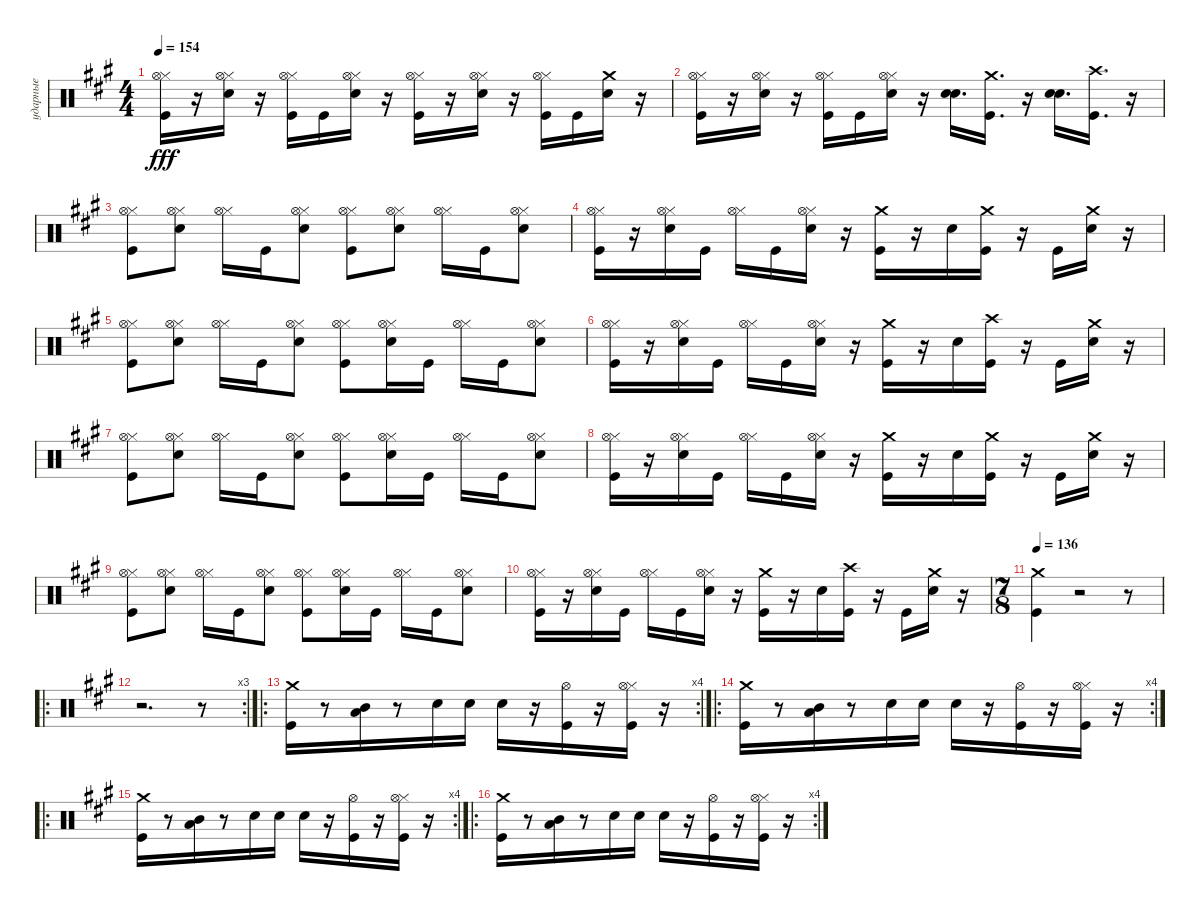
\track ("ударные" "ударные") {instrument percussion}
\staff {score}
\articulation defaults
\ts (4 4)
\tempo 154
\clef neutral
\ks f#minor
("Hi-Hat (closed)" "Kick (hit)" "Hi-Hat (open)").16{dy fff} r.16 ("Hi-Hat (closed)" "Snare (hit) 2" "Hi-Hat (open)").16 r.16 ("Hi-Hat (closed)" "Kick (hit)" "Hi-Hat (open)").16 "Kick (hit)".16 ("Hi-Hat (closed)" "Snare (hit) 2" "Hi-Hat (open)").16 r.16 ("Hi-Hat (closed)" "Kick (hit)" "Hi-Hat (open)").16 r.16 ("Hi-Hat (closed)" "Snare (hit) 2" "Hi-Hat (open)").16 r.16 ("Hi-Hat (closed)" "Kick (hit)" "Hi-Hat (open)").16 "Kick (hit)".16 ("Crash medium (hit)" "Snare (hit) 2").16 r.16 |
("Hi-Hat (closed)" "Kick (hit)" "Hi-Hat (open)").16 r.16 ("Hi-Hat (closed)" "Snare (hit) 2" "Hi-Hat (open)").16 r.16 ("Hi-Hat (closed)" "Kick (hit)" "Hi-Hat (open)").16 "Kick (hit)".16 ("Hi-Hat (closed)" "Snare (hit) 2" "Hi-Hat (open)").16 r.16 ("Snare (hit) 2" "Snare (hit) 2").16{d} ("Crash medium (hit)" "Kick (hit)").16{d} r.16 ("Snare (hit) 2" "Snare (hit) 2").16{d} ("Kick (hit)" "Crash high (hit)").16{d} r.16 |
("Hi-Hat (closed)" "Kick (hit)" "Hi-Hat (open)").8 ("Snare (hit) 2" "Hi-Hat (closed)" "Hi-Hat (open)").8 ("Hi-Hat (closed)" "Hi-Hat (open)").16 "Kick (hit)".16 ("Snare (hit) 2" "Hi-Hat (closed)" "Hi-Hat (open)").8 ("Kick (hit)" "Hi-Hat (closed)" "Hi-Hat (open)").8 ("Snare (hit) 2" "Hi-Hat (closed)" "Hi-Hat (open)").8 ("Hi-Hat (closed)" "Hi-Hat (open)").16 "Kick (hit)".16 ("Snare (hit) 2" "Hi-Hat (closed)" "Hi-Hat (open)").8 |
("Hi-Hat (closed)" "Kick (hit)" "Hi-Hat (open)").16 r.16 ("Hi-Hat (closed)" "Snare (hit) 2" "Hi-Hat (open)").16 "Kick (hit)".16 ("Hi-Hat (closed)" "Hi-Hat (open)").16 "Kick (hit)".16 ("Hi-Hat (closed)" "Snare (hit) 2" "Hi-Hat (open)").16 r.16 ("Crash medium (hit)" "Kick (hit)").16 r.16 "Snare (hit) 2".16 ("Crash medium (hit)" "Kick (hit)").16 r.16 "Kick (hit)".16 ("Crash medium (hit)" "Snare (hit) 2").16 r.16 |
("Hi-Hat (closed)" "Kick (hit)" "Hi-Hat (open)").8 ("Snare (hit) 2" "Hi-Hat (closed)" "Hi-Hat (open)").8 ("Hi-Hat (closed)" "Hi-Hat (open)").16 "Kick (hit)".16 ("Snare (hit) 2" "Hi-Hat (closed)" "Hi-Hat (open)").8 ("Kick (hit)" "Hi-Hat (closed)" "Hi-Hat (open)").8 ("Snare (hit) 2" "Hi-Hat (closed)" "Hi-Hat (open)").16 "Kick (hit)".16 ("Hi-Hat (closed)" "Hi-Hat (open)").16 "Kick (hit)".16 ("Snare (hit) 2" "Hi-Hat (closed)" "Hi-Hat (open)").8 |
("Hi-Hat (closed)" "Kick (hit)" "Hi-Hat (open)").16 r.16 ("Hi-Hat (closed)" "Snare (hit) 2" "Hi-Hat (open)").16 "Kick (hit)".16 ("Hi-Hat (closed)" "Hi-Hat (open)").16 "Kick (hit)".16 ("Hi-Hat (closed)" "Snare (hit) 2" "Hi-Hat (open)").16 r.16 ("Crash medium (hit)" "Kick (hit)").16 r.16 "Snare (hit) 2".16 ("Kick (hit)" "Crash high (hit)").16 r.16 "Kick (hit)".16 ("Crash medium (hit)" "Snare (hit) 2").16 r.16 |
("Hi-Hat (closed)" "Kick (hit)" "Hi-Hat (open)").8 ("Snare (hit) 2" "Hi-Hat (closed)" "Hi-Hat (open)").8 ("Hi-Hat (closed)" "Hi-Hat (open)").16 "Kick (hit)".16 ("Snare (hit) 2" "Hi-Hat (closed)" "Hi-Hat (open)").8 ("Kick (hit)" "Hi-Hat (closed)" "Hi-Hat (open)").8 ("Snare (hit) 2" "Hi-Hat (closed)" "Hi-Hat (open)").16 "Kick (hit)".16 ("Hi-Hat (closed)" "Hi-Hat (open)").16 "Kick (hit)".16 ("Snare (hit) 2" "Hi-Hat (closed)" "Hi-Hat (open)").8 |
("Hi-Hat (closed)" "Kick (hit)" "Hi-Hat (open)").16 r.16 ("Hi-Hat (closed)" "Snare (hit) 2" "Hi-Hat (open)").16 "Kick (hit)".16 ("Hi-Hat (closed)" "Hi-Hat (open)").16 "Kick (hit)".16 ("Hi-Hat (closed)" "Snare (hit) 2" "Hi-Hat (open)").16 r.16 ("Crash medium (hit)" "Kick (hit)").16 r.16 "Snare (hit) 2".16 ("Crash medium (hit)" "Kick (hit)").16 r.16 "Kick (hit)".16 ("Crash medium (hit)" "Snare (hit) 2").16 r.16 |
("Hi-Hat (closed)" "Kick (hit)" "Hi-Hat (open)").8 ("Snare (hit) 2" "Hi-Hat (closed)" "Hi-Hat (open)").8 ("Hi-Hat (closed)" "Hi-Hat (open)").16 "Kick (hit)".16 ("Snare (hit) 2" "Hi-Hat (closed)" "Hi-Hat (open)").8 ("Kick (hit)" "Hi-Hat (closed)" "Hi-Hat (open)").8 ("Snare (hit) 2" "Hi-Hat (closed)" "Hi-Hat (open)").16 "Kick (hit)".16 ("Hi-Hat (closed)" "Hi-Hat (open)").16 "Kick (hit)".16 ("Snare (hit) 2" "Hi-Hat (closed)" "Hi-Hat (open)").8 |
("Hi-Hat (closed)" "Kick (hit)" "Hi-Hat (open)").16 r.16 ("Hi-Hat (closed)" "Snare (hit) 2" "Hi-Hat (open)").16 "Kick (hit)".16 ("Hi-Hat (closed)" "Hi-Hat (open)").16 "Kick (hit)".16 ("Hi-Hat (closed)" "Snare (hit) 2" "Hi-Hat (open)").16 r.16 ("Crash medium (hit)" "Kick (hit)").16 r.16 "Snare (hit) 2".16 ("Kick (hit)" "Crash high (hit)").16 r.16 "Kick (hit)".16 ("Crash medium (hit)" "Snare (hit) 2").16 r.16 |
\ts (7 8)
\tempo 136
("Crash medium (hit)" "Kick (hit)").4 r.2 r.8 |
\ro
\rc 3
r.2{d} r.8 |
\ro
\rc 4
("Crash medium (hit)" "Kick (hit)").16 r.8 ("Low Tom (hit)" "Mid Tom (hit)").16 r.8 "Snare (hit) 2".16 "Snare (hit) 2".16 "Snare (hit) 2".16 r.16 ("Hi-Hat (open)" "Kick (hit)").16 r.16 ("Hi-Hat (closed)" "Kick (hit)" "Hi-Hat (open)").16 r.16 |
\ro
\rc 4
("Crash medium (hit)" "Kick (hit)").16 r.8 ("Low Tom (hit)" "Mid Tom (hit)").16 r.8 "Snare (hit) 2".16 "Snare (hit) 2".16 "Snare (hit) 2".16 r.16 ("Hi-Hat (open)" "Kick (hit)").16 r.16 ("Hi-Hat (closed)" "Kick (hit)" "Hi-Hat (open)").16 r.16 |
\ro
\rc 4
("Crash medium (hit)" "Kick (hit)").16 r.8 ("Low Tom (hit)" "Mid Tom (hit)").16 r.8 "Snare (hit) 2".16 "Snare (hit) 2".16 "Snare (hit) 2".16 r.16 ("Hi-Hat (open)" "Kick (hit)").16 r.16 ("Hi-Hat (closed)" "Kick (hit)" "Hi-Hat (open)").16 r.16 |
\ro
\rc 4
("Crash medium (hit)" "Kick (hit)").16 r.8 ("Low Tom (hit)" "Mid Tom (hit)").16 r.8 "Snare (hit) 2".16 "Snare (hit) 2".16 "Snare (hit) 2".16 r.16 ("Hi-Hat (open)" "Kick (hit)").16 r.16 ("Hi-Hat (closed)" "Kick (hit)" "Hi-Hat (open)").16 r.16
